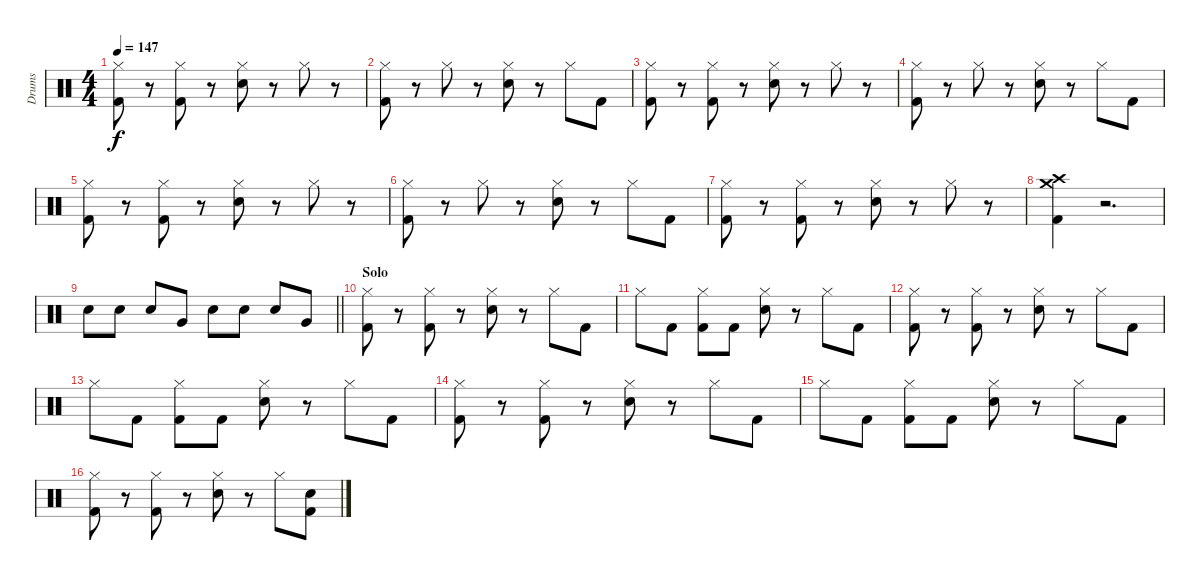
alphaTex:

\track ("Drums" "Drums") {instrument percussion}
\staff {score}
\articulation defaults
\ts (4 4)
\tempo 147
\clef neutral
\ks c
("Hi-Hat (closed)" "Kick (hit) 2").8{dy f} r.8 ("Hi-Hat (closed)" "Kick (hit) 2").8 r.8 ("Hi-Hat (closed)" "Electric Snare (hit)").8 r.8 "Hi-Hat (closed)".8 r.8 |
("Hi-Hat (closed)" "Kick (hit) 2").8 r.8 "Hi-Hat (closed)".8 r.8 ("Hi-Hat (closed)" "Electric Snare (hit)").8 r.8 "Hi-Hat (closed)".8 "Kick (hit) 2".8 |
("Hi-Hat (closed)" "Kick (hit) 2").8 r.8 ("Hi-Hat (closed)" "Kick (hit) 2").8 r.8 ("Hi-Hat (closed)" "Electric Snare (hit)").8 r.8 "Hi-Hat (closed)".8 r.8 |
("Hi-Hat (closed)" "Kick (hit) 2").8 r.8 "Hi-Hat (closed)".8 r.8 ("Hi-Hat (closed)" "Electric Snare (hit)").8 r.8 "Hi-Hat (closed)".8 "Kick (hit) 2".8 |
("Hi-Hat (closed)" "Kick (hit) 2").8 r.8 ("Hi-Hat (closed)" "Kick (hit) 2").8 r.8 ("Hi-Hat (closed)" "Electric Snare (hit)").8 r.8 "Hi-Hat (closed)".8 r.8 |
("Hi-Hat (closed)" "Kick (hit) 2").8 r.8 "Hi-Hat (closed)".8 r.8 ("Hi-Hat (closed)" "Electric Snare (hit)").8 r.8 "Hi-Hat (closed)".8 "Kick (hit) 2".8 |
("Hi-Hat (closed)" "Kick (hit) 2").8 r.8 ("Hi-Hat (closed)" "Kick (hit) 2").8 r.8 ("Hi-Hat (closed)" "Electric Snare (hit)").8 r.8 "Hi-Hat (closed)".8 r.8 |
("Crash high (hit)" "Crash medium (hit)" "Kick (hit) 2").4 r.2{d} |
\barLineRight lightlight "Electric Snare (hit)".8 "Electric Snare (hit)".8 "Electric Snare (hit)".8 "Very Low Tom (hit)".8 "Electric Snare (hit)".8 "Electric Snare (hit)".8 "Electric Snare (hit)".8 "Very Low Tom (hit)".8
|
\section ("" "Solo")
("Hi-Hat (closed)" "Kick (hit) 2").8 r.8 ("Hi-Hat (closed)" "Kick (hit) 2").8 r.8 ("Hi-Hat (closed)" "Electric Snare (hit)").8 r.8 "Hi-Hat (closed)".8 "Kick (hit) 2".8 |
"Hi-Hat (closed)".8 "Kick (hit) 2".8 ("Hi-Hat (closed)" "Kick (hit) 2").8 "Kick (hit) 2".8 ("Hi-Hat (closed)" "Electric Snare (hit)").8 r.8 "Hi-Hat (closed)".8 "Kick (hit) 2".8 |
("Hi-Hat (closed)" "Kick (hit) 2").8 r.8 ("Hi-Hat (closed)" "Kick (hit) 2").8 r.8 ("Hi-Hat (closed)" "Electric Snare (hit)").8 r.8 "Hi-Hat (closed)".8 "Kick (hit) 2".8 |
"Hi-Hat (closed)".8 "Kick (hit) 2".8 ("Hi-Hat (closed)" "Kick (hit) 2").8 "Kick (hit) 2".8 ("Hi-Hat (closed)" "Electric Snare (hit)").8 r.8 "Hi-Hat (closed)".8 "Kick (hit) 2".8 |
("Hi-Hat (closed)" "Kick (hit) 2").8 r.8 ("Hi-Hat (closed)" "Kick (hit) 2").8 r.8 ("Hi-Hat (closed)" "Electric Snare (hit)").8 r.8 "Hi-Hat (closed)".8 "Kick (hit) 2".8 |
"Hi-Hat (closed)".8 "Kick (hit) 2".8 ("Hi-Hat (closed)" "Kick (hit) 2").8 "Kick (hit) 2".8 ("Hi-Hat (closed)" "Electric Snare (hit)").8 r.8 "Hi-Hat (closed)".8 "Kick (hit) 2".8 |
("Hi-Hat (closed)" "Kick (hit) 2").8 r.8 ("Hi-Hat (closed)" "Kick (hit) 2").8 r.8 ("Hi-Hat (closed)" "Electric Snare (hit)").8 r.8 "Hi-Hat (closed)".8 ("Electric Snare (hit)" "Kick (hit) 2").8
